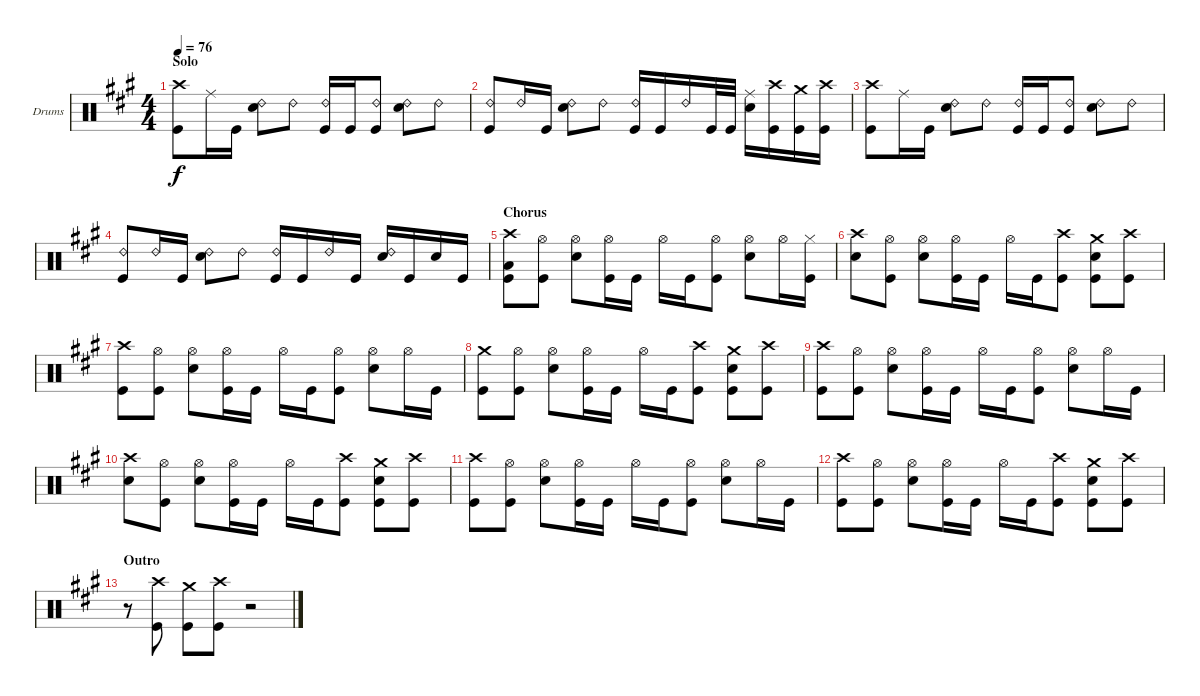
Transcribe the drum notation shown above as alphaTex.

\defaultSystemsLayout 4
\bracketExtendMode groupsimilarinstruments
\firstSystemTrackNameOrientation horizontal
\otherSystemsTrackNameOrientation horizontal
\track ("Drums" "Drums") {instrument percussion}
\staff {score}
\articulation defaults
\ts (4 4)
\section ("" "Solo")
\tempo 76
\clef neutral
\ks f#minor
("Kick (hit)" "Crash high (hit)").8{dy f} "Ride (middle)".16 "Kick (hit)".16 ("Snare (hit) 2" "Ride (bell) 2").8 "Ride (bell) 2".8 ("Ride (bell) 2" "Kick (hit)").16 "Kick (hit)".16 ("Kick (hit)" "Ride (bell) 2").8 ("Ride (bell) 2" "Snare (hit) 2").8 "Ride (bell) 2".8 |
("Kick (hit)" "Ride (bell) 2").8 "Ride (bell) 2".16 "Kick (hit)".16 ("Snare (hit) 2" "Ride (bell) 2").8 "Ride (bell) 2".8 ("Ride (bell) 2" "Kick (hit)").16 "Kick (hit)".16 "Ride (bell) 2".16 "Kick (hit)".32 "Kick (hit)".32 ("Ride (middle)" "Snare (hit) 2").16 ("Crash high (hit)" "Kick (hit)").16 ("Crash medium (hit)" "Kick (hit)").16 ("Kick (hit)" "Crash high (hit)").16 |
("Crash high (hit)" "Kick (hit)").8 "Ride (middle)".16 "Kick (hit)".16 ("Snare (hit) 2" "Ride (bell) 2").8 "Ride (bell) 2".8 ("Ride (bell) 2" "Kick (hit)").16 "Kick (hit)".16 ("Kick (hit)" "Ride (bell) 2").8 ("Ride (bell) 2" "Snare (hit) 2").8 "Ride (bell) 2".8 |
("Kick (hit)" "Ride (bell) 2").8 "Ride (bell) 2".16 "Kick (hit)".16 ("Snare (hit) 2" "Ride (bell) 2").8 "Ride (bell) 2".8 ("Kick (hit)" "Ride (bell) 2").16 "Kick (hit)".16 "Ride (bell) 2".16 "Kick (hit)".16 ("Ride (bell) 2" "Snare (hit) 2").16 "Kick (hit)".16 "Snare (hit) 2".16 "Kick (hit)".16 |
\section ("" "Chorus")
("Kick (hit)" "Crash high (hit)" "Low Tom (hit)").8 ("Hi-Hat (open)" "Kick (hit)").8 ("Hi-Hat (open)" "Snare (hit) 2").8 ("Hi-Hat (open)" "Kick (hit)").16 "Kick (hit)".16 "Hi-Hat (open)".16 "Kick (hit)".16 ("Hi-Hat (open)" "Kick (hit)").8 ("Hi-Hat (open)" "Snare (hit) 2").8 "Hi-Hat (open)".16 ("Kick (hit)" "Hi-Hat (closed)").16 |
("Snare (hit) 2" "Crash high (hit)").8 ("Kick (hit)" "Hi-Hat (open)").8 ("Hi-Hat (open)" "Snare (hit) 2").8 ("Hi-Hat (open)" "Kick (hit)").16 "Kick (hit)".16 "Hi-Hat (open)".16 "Kick (hit)".16 ("Kick (hit)" "Crash high (hit)").8 ("Kick (hit)" "Snare (hit) 2" "Crash medium (hit)").8 ("Crash high (hit)" "Kick (hit)").8 |
("Kick (hit)" "Crash high (hit)").8 ("Hi-Hat (open)" "Kick (hit)").8 ("Hi-Hat (open)" "Snare (hit) 2").8 ("Hi-Hat (open)" "Kick (hit)").16 "Kick (hit)".16 "Hi-Hat (open)".16 "Kick (hit)".16 ("Hi-Hat (open)" "Kick (hit)").8 ("Hi-Hat (open)" "Snare (hit) 2").8 "Hi-Hat (open)".16 "Kick (hit)".16 |
("Kick (hit)" "Crash medium (hit)").8 ("Kick (hit)" "Hi-Hat (open)").8 ("Hi-Hat (open)" "Snare (hit) 2").8 ("Hi-Hat (open)" "Kick (hit)").16 "Kick (hit)".16 "Hi-Hat (open)".16 "Kick (hit)".16 ("Kick (hit)" "Crash high (hit)").8 ("Kick (hit)" "Snare (hit) 2" "Crash medium (hit)").8 ("Crash high (hit)" "Kick (hit)").8 |
("Kick (hit)" "Crash high (hit)").8 ("Hi-Hat (open)" "Kick (hit)").8 ("Hi-Hat (open)" "Snare (hit) 2").8 ("Hi-Hat (open)" "Kick (hit)").16 "Kick (hit)".16 "Hi-Hat (open)".16 "Kick (hit)".16 ("Hi-Hat (open)" "Kick (hit)").8 ("Hi-Hat (open)" "Snare (hit) 2").8 "Hi-Hat (open)".16 "Kick (hit)".16 |
("Snare (hit) 2" "Crash high (hit)").8 ("Kick (hit)" "Hi-Hat (open)").8 ("Hi-Hat (open)" "Snare (hit) 2").8 ("Hi-Hat (open)" "Kick (hit)").16 "Kick (hit)".16 "Hi-Hat (open)".16 "Kick (hit)".16 ("Kick (hit)" "Crash high (hit)").8 ("Kick (hit)" "Snare (hit) 2" "Crash medium (hit)").8 ("Crash high (hit)" "Kick (hit)").8 |
("Kick (hit)" "Crash high (hit)").8 ("Hi-Hat (open)" "Kick (hit)").8 ("Hi-Hat (open)" "Snare (hit) 2").8 ("Hi-Hat (open)" "Kick (hit)").16 "Kick (hit)".16 "Hi-Hat (open)".16 "Kick (hit)".16 ("Hi-Hat (open)" "Kick (hit)").8 ("Hi-Hat (open)" "Snare (hit) 2").8 "Hi-Hat (open)".16 "Kick (hit)".16 |
("Crash high (hit)" "Kick (hit)").8 ("Kick (hit)" "Hi-Hat (open)").8 ("Hi-Hat (open)" "Snare (hit) 2").8 ("Hi-Hat (open)" "Kick (hit)").16 "Kick (hit)".16 "Hi-Hat (open)".16 "Kick (hit)".16 ("Kick (hit)" "Crash high (hit)").8 ("Kick (hit)" "Snare (hit) 2" "Crash medium (hit)").8 ("Crash high (hit)" "Kick (hit)").8 |
\section ("" "Outro")
r.8 ("Crash high (hit)" "Kick (hit)").8 ("Crash medium (hit)" "Kick (hit)").8 ("Crash high (hit)" "Kick (hit)").8 r.2
